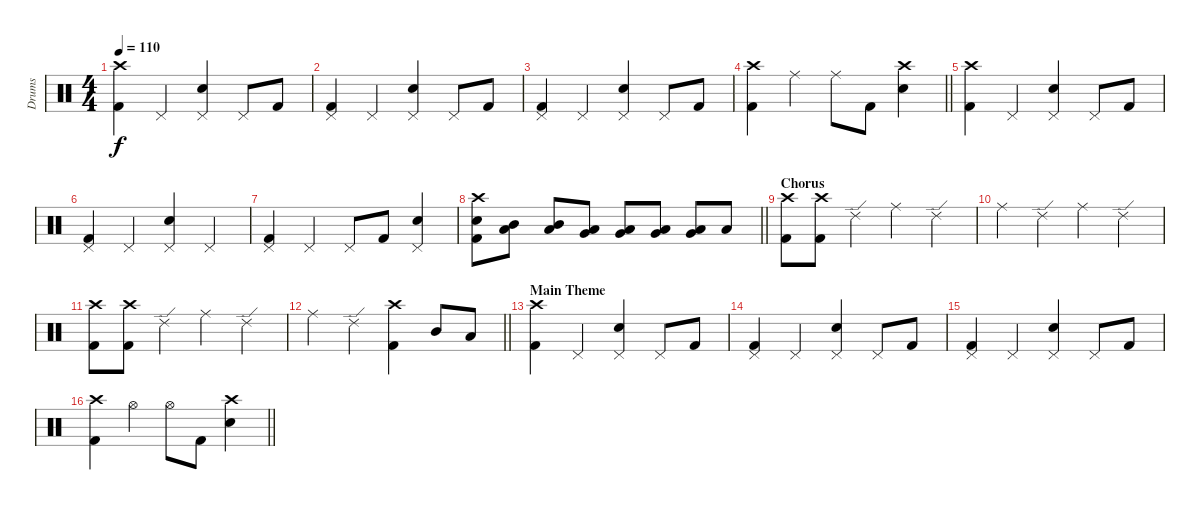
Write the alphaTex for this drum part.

\track ("Drums" "Drums") {instrument percussion}
\staff {score}
\articulation defaults
\ts (4 4)
\section ("" "")
\tempo 110
\clef neutral
\ks c
("Crash high (hit)" "Kick (hit) 2").4{dy f} "Pedal Hi-Hat (hit)".4 ("Pedal Hi-Hat (hit)" "Snare (hit) 2").4 "Pedal Hi-Hat (hit)".8 "Kick (hit) 2".8 |
("Pedal Hi-Hat (hit)" "Kick (hit) 2").4 "Pedal Hi-Hat (hit)".4 ("Pedal Hi-Hat (hit)" "Snare (hit) 2").4 "Pedal Hi-Hat (hit)".8 "Kick (hit) 2".8 |
("Pedal Hi-Hat (hit)" "Kick (hit) 2").4 "Pedal Hi-Hat (hit)".4 ("Pedal Hi-Hat (hit)" "Snare (hit) 2").4 "Pedal Hi-Hat (hit)".8 "Kick (hit) 2".8 |
\barLineRight lightlight
("Crash high (hit)" "Kick (hit) 2").4 "Ride (middle)".4 "Ride (middle)".8 "Kick (hit) 2".8 ("Crash high (hit)" "Snare (hit) 2").4 |
\section ("" "")
("Crash high (hit)" "Kick (hit) 2").4 "Pedal Hi-Hat (hit)".4 ("Pedal Hi-Hat (hit)" "Snare (hit) 2").4 "Pedal Hi-Hat (hit)".8 "Kick (hit) 2".8 |
("Pedal Hi-Hat (hit)" "Kick (hit) 2").4 "Pedal Hi-Hat (hit)".4 ("Pedal Hi-Hat (hit)" "Snare (hit) 2").4 "Pedal Hi-Hat (hit)".4 |
("Pedal Hi-Hat (hit)" "Kick (hit) 2").4 "Pedal Hi-Hat (hit)".4 "Pedal Hi-Hat (hit)".8 "Kick (hit) 2".8 ("Pedal Hi-Hat (hit)" "Snare (hit) 2").4 |
\barLineRight lightlight
("Crash high (hit)" "Snare (hit) 2" "Kick (hit) 2").8 ("Low Tom (hit)" "Mid Tom (hit)").8{bd 60} ("Low Tom (hit)" "Mid Tom (hit)").8{bd 60} ("Very Low Tom (hit)" "Low Tom (hit)").8{bd 60} ("Very Low Tom (hit)" "Low Tom (hit)").8{bd 60} ("Very Low Tom (hit)" "Low Tom (hit)").8{bd 60} ("Very Low Tom (hit)" "Low Floor Tom (hit)").8{bd 60} "Low Floor Tom (hit)".8{bd 60} |
\section ("" "Chorus")
("Crash high (hit)" "Kick (hit) 2").8 ("Crash high (hit)" "Kick (hit) 2").8 "Ride (edge) 2".4 "Ride (middle)".4 "Ride (edge) 2".4 |
"Ride (middle)".4 "Ride (edge) 2".4 "Ride (middle)".4 "Ride (edge) 2".4 |
("Crash high (hit)" "Kick (hit) 2").8 ("Crash high (hit)" "Kick (hit) 2").8 "Ride (edge) 2".4 "Ride (middle)".4 "Ride (edge) 2".4 |
\barLineRight lightlight "Ride (middle)".4 "Ride (edge) 2".4
("Crash high (hit)" "Kick (hit) 2").4 "Mid Tom (hit)".8 "Low Tom (hit)".8 |
\section ("" "Main Theme")
("Crash high (hit)" "Kick (hit) 2").4 "Pedal Hi-Hat (hit)".4 ("Pedal Hi-Hat (hit)" "Snare (hit) 2").4 "Pedal Hi-Hat (hit)".8 "Kick (hit) 2".8 |
("Pedal Hi-Hat (hit)" "Kick (hit) 2").4 "Pedal Hi-Hat (hit)".4 ("Pedal Hi-Hat (hit)" "Snare (hit) 2").4 "Pedal Hi-Hat (hit)".8 "Kick (hit) 2".8 |
("Pedal Hi-Hat (hit)" "Kick (hit) 2").4 "Pedal Hi-Hat (hit)".4 ("Pedal Hi-Hat (hit)" "Snare (hit) 2").4 "Pedal Hi-Hat (hit)".8 "Kick (hit) 2".8 |
\barLineRight lightlight
("Crash high (hit)" "Kick (hit) 2").4 "Hi-Hat (open)".4 "Hi-Hat (open)".8 "Kick (hit) 2".8 ("Crash high (hit)" "Snare (hit) 2").4
